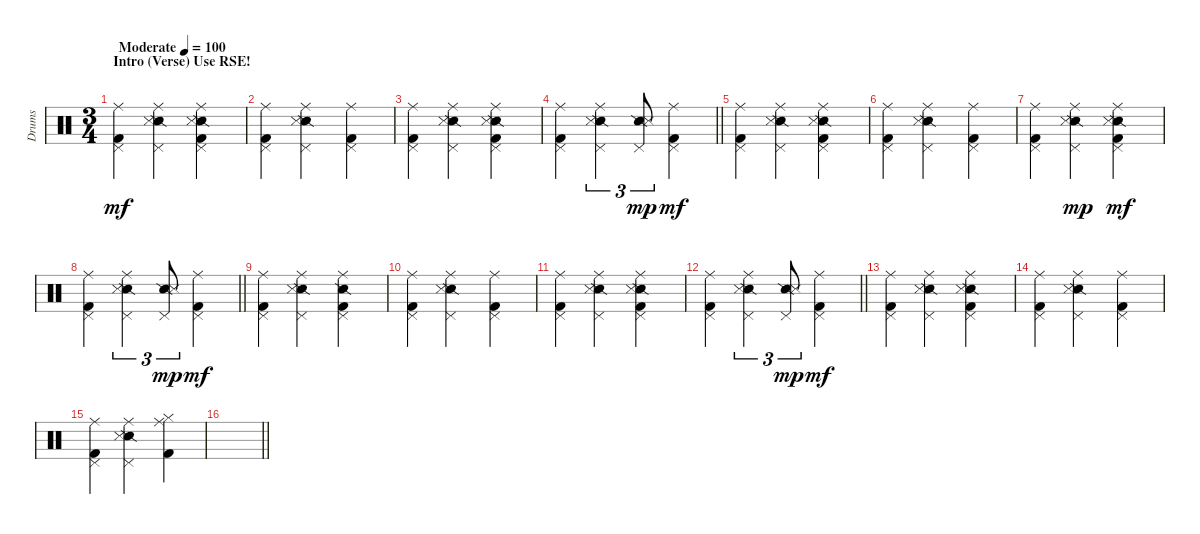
\track ("Drums" "Drums") {instrument percussion}
\staff {score}
\articulation defaults
\ts (3 4)
\section ("" "Intro (Verse) Use RSE!")
\tempo (100 "Moderate")
\clef neutral
\ks c
("Ride (middle)" "Pedal Hi-Hat (hit)" "Kick (hit) 2").4{dy mf} ("Ride (middle)" "Pedal Hi-Hat (hit)" "Snare (side stick) 2" "Snare (side stick) 3").4 ("Ride (middle)" "Pedal Hi-Hat (hit)" "Snare (side stick) 2" "Snare (side stick) 3" "Kick (hit) 2").4 |
("Ride (middle)" "Pedal Hi-Hat (hit)" "Kick (hit) 2").4 ("Ride (middle)" "Pedal Hi-Hat (hit)" "Snare (side stick) 2" "Snare (side stick) 3").4 ("Ride (middle)" "Pedal Hi-Hat (hit)" "Kick (hit) 2").4 |
("Ride (middle)" "Pedal Hi-Hat (hit)" "Kick (hit) 2").4 ("Ride (middle)" "Pedal Hi-Hat (hit)" "Snare (side stick) 2" "Snare (side stick) 3").4 ("Ride (middle)" "Pedal Hi-Hat (hit)" "Snare (side stick) 2" "Snare (side stick) 3" "Kick (hit) 2").4 |
\barLineRight lightlight
("Ride (middle)" "Pedal Hi-Hat (hit)" "Kick (hit) 2").4 ("Ride (middle)" "Pedal Hi-Hat (hit)" "Snare (side stick) 2" "Snare (side stick) 3").4{tu (3 2)} ("Pedal Hi-Hat (hit)" "Snare (side stick) 2" "Snare (side stick) 3").8{tu (3 2) dy mp} ("Ride (middle)" "Pedal Hi-Hat (hit)" "Kick (hit) 2").4{dy mf} |
("Ride (middle)" "Pedal Hi-Hat (hit)" "Kick (hit) 2").4 ("Ride (middle)" "Pedal Hi-Hat (hit)" "Snare (side stick) 2" "Snare (side stick) 3").4 ("Ride (middle)" "Pedal Hi-Hat (hit)" "Snare (side stick) 2" "Snare (side stick) 3" "Kick (hit) 2").4 |
("Ride (middle)" "Pedal Hi-Hat (hit)" "Kick (hit) 2").4 ("Ride (middle)" "Pedal Hi-Hat (hit)" "Snare (side stick) 2" "Snare (side stick) 3").4 ("Ride (middle)" "Pedal Hi-Hat (hit)" "Kick (hit) 2").4 |
("Ride (middle)" "Pedal Hi-Hat (hit)" "Kick (hit) 2").4 ("Ride (middle)" "Pedal Hi-Hat (hit)" "Snare (side stick) 2" "Snare (side stick) 3").4{dy mp} ("Ride (middle)" "Pedal Hi-Hat (hit)" "Snare (side stick) 2" "Snare (side stick) 3" "Kick (hit) 2").4{dy mf} |
\barLineRight lightlight
("Ride (middle)" "Pedal Hi-Hat (hit)" "Kick (hit) 2").4 ("Ride (middle)" "Pedal Hi-Hat (hit)" "Snare (side stick) 2" "Snare (side stick) 3").4{tu (3 2)} ("Pedal Hi-Hat (hit)" "Snare (side stick) 2" "Snare (side stick) 3").8{tu (3 2) dy mp} ("Ride (middle)" "Pedal Hi-Hat (hit)" "Kick (hit) 2").4{dy mf} |
("Ride (middle)" "Pedal Hi-Hat (hit)" "Kick (hit) 2").4 ("Ride (middle)" "Pedal Hi-Hat (hit)" "Snare (side stick) 2" "Snare (side stick) 3").4 ("Ride (middle)" "Pedal Hi-Hat (hit)" "Snare (side stick) 2" "Kick (hit) 2").4 |
("Ride (middle)" "Pedal Hi-Hat (hit)" "Kick (hit) 2").4 ("Ride (middle)" "Pedal Hi-Hat (hit)" "Snare (side stick) 2" "Snare (side stick) 3").4 ("Ride (middle)" "Pedal Hi-Hat (hit)" "Kick (hit) 2").4 |
("Ride (middle)" "Pedal Hi-Hat (hit)" "Kick (hit) 2").4 ("Ride (middle)" "Pedal Hi-Hat (hit)" "Snare (side stick) 2" "Snare (side stick) 3").4 ("Ride (middle)" "Pedal Hi-Hat (hit)" "Snare (side stick) 2" "Snare (side stick) 3" "Kick (hit) 2").4 |
\barLineRight lightlight
("Ride (middle)" "Pedal Hi-Hat (hit)" "Kick (hit) 2").4 ("Ride (middle)" "Pedal Hi-Hat (hit)" "Snare (side stick) 2" "Snare (side stick) 3").4{tu (3 2)} ("Pedal Hi-Hat (hit)" "Snare (side stick) 2" "Snare (side stick) 3").8{tu (3 2) dy mp} ("Ride (middle)" "Pedal Hi-Hat (hit)" "Kick (hit) 2").4{dy mf} |
("Ride (middle)" "Pedal Hi-Hat (hit)" "Kick (hit) 2").4 ("Ride (middle)" "Pedal Hi-Hat (hit)" "Snare (side stick) 2" "Snare (side stick) 3").4 ("Ride (middle)" "Pedal Hi-Hat (hit)" "Snare (side stick) 2" "Snare (side stick) 3" "Kick (hit) 2").4 |
("Ride (middle)" "Pedal Hi-Hat (hit)" "Kick (hit) 2").4 ("Ride (middle)" "Pedal Hi-Hat (hit)" "Snare (side stick) 2" "Snare (side stick) 3").4 ("Ride (middle)" "Pedal Hi-Hat (hit)" "Kick (hit) 2").4 |
("Ride (middle)" "Pedal Hi-Hat (hit)" "Kick (hit) 2").4 ("Ride (middle)" "Pedal Hi-Hat (hit)" "Snare (side stick) 2" "Snare (side stick) 3").4 ("Ride (middle)" "Hi-Hat (closed)" "Kick (hit) 2").4 |
\barLineRight lightlight
